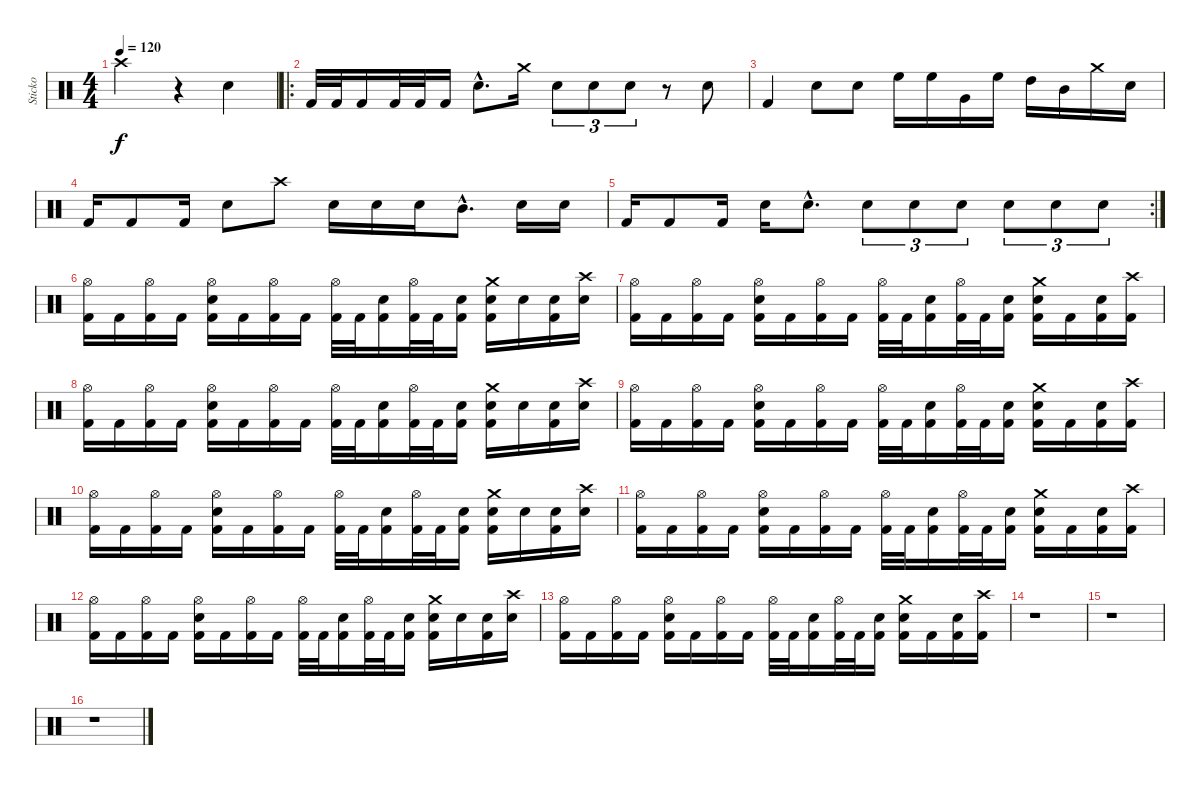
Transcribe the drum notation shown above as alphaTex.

\track ("Sticko" "Sticko") {instrument percussion}
\staff {score}
\articulation defaults
\ts (4 4)
\tempo 120
\clef neutral
\ks c "Crash high (hit)".2{dy f}
r.4 "Snare (hit) 2".4 |
\ro "Kick (hit) 2".32 "Kick (hit) 2".32 "Kick (hit) 2".16 "Kick (hit) 2".32 "Kick (hit) 2".32 "Kick (hit) 2".16 "Snare (hit) 2"{hac}.8{d} "Crash medium (hit)".16 "Snare (hit) 2".8{tu (3 2)} "Snare (hit) 2".8{tu (3 2)} "Snare (hit) 2".8{tu (3 2)}
r.8 "Snare (hit) 2".8 |
"Kick (hit) 2".4 "Snare (hit) 2".8 "Snare (hit) 2".8 "High Floor Tom (hit)".16 "High Floor Tom (hit)".16 "Very Low Tom (hit)".16 "High Floor Tom (hit)".16 "High Tom (hit)".16 "Mid Tom (hit)".16 "Crash medium (hit)".16 "Snare (hit) 2".16 |
"Kick (hit) 2".16 "Kick (hit) 2".8 "Kick (hit) 2".16 "Snare (hit) 2".8 "Crash high (hit)".8 "Snare (hit) 2".16 "Snare (hit) 2".16 "Snare (hit) 2".16 "Mid Tom (hit)"{hac}.8{d} "Snare (hit) 2".16 "Snare (hit) 2".16 |
\rc 2 "Kick (hit) 2".16 "Kick (hit) 2".8 "Kick (hit) 2".16 "Snare (hit) 2".16 "Snare (hit) 2"{hac}.8{d} "Snare (hit) 2".8{tu (3 2)} "Snare (hit) 2".8{tu (3 2)} "Snare (hit) 2".8{tu (3 2)} "Snare (hit) 2".8{tu (3 2)} "Snare (hit) 2".8{tu (3 2)} "Snare (hit) 2".8{tu (3 2)}
|
("Hi-Hat (open)" "Kick (hit) 2").16 "Kick (hit) 2".16 ("Hi-Hat (open)" "Kick (hit) 2").16 "Kick (hit) 2".16 ("Hi-Hat (open)" "Snare (hit) 2" "Kick (hit) 2").16 "Kick (hit) 2".16 ("Hi-Hat (open)" "Kick (hit) 2").16 "Kick (hit) 2".16 ("Hi-Hat (open)" "Kick (hit) 2").32 "Kick (hit) 2".32 ("Snare (hit) 2" "Kick (hit) 2").16 ("Hi-Hat (open)" "Kick (hit) 2").32 "Kick (hit) 2".32 ("Snare (hit) 2" "Kick (hit) 2").16 ("Crash medium (hit)" "Snare (hit) 2" "Kick (hit) 2").16 "Snare (hit) 2".16 ("Snare (hit) 2" "Kick (hit) 2").16 ("Crash high (hit)" "Snare (hit) 2").16 |
("Hi-Hat (open)" "Kick (hit) 2").16 "Kick (hit) 2".16 ("Hi-Hat (open)" "Kick (hit) 2").16 "Kick (hit) 2".16 ("Hi-Hat (open)" "Snare (hit) 2" "Kick (hit) 2").16 "Kick (hit) 2".16 ("Hi-Hat (open)" "Kick (hit) 2").16 "Kick (hit) 2".16 ("Hi-Hat (open)" "Kick (hit) 2").32 "Kick (hit) 2".32 ("Snare (hit) 2" "Kick (hit) 2").16 ("Hi-Hat (open)" "Kick (hit) 2").32 "Kick (hit) 2".32 ("Snare (hit) 2" "Kick (hit) 2").16 ("Crash medium (hit)" "Snare (hit) 2" "Kick (hit) 2").16 "Kick (hit) 2".16 ("Snare (hit) 2" "Kick (hit) 2").16 ("Crash high (hit)" "Kick (hit) 2").16 |
("Hi-Hat (open)" "Kick (hit) 2").16 "Kick (hit) 2".16 ("Hi-Hat (open)" "Kick (hit) 2").16 "Kick (hit) 2".16 ("Hi-Hat (open)" "Snare (hit) 2" "Kick (hit) 2").16 "Kick (hit) 2".16 ("Hi-Hat (open)" "Kick (hit) 2").16 "Kick (hit) 2".16 ("Hi-Hat (open)" "Kick (hit) 2").32 "Kick (hit) 2".32 ("Snare (hit) 2" "Kick (hit) 2").16 ("Hi-Hat (open)" "Kick (hit) 2").32 "Kick (hit) 2".32 ("Snare (hit) 2" "Kick (hit) 2").16 ("Crash medium (hit)" "Snare (hit) 2" "Kick (hit) 2").16 "Snare (hit) 2".16 ("Snare (hit) 2" "Kick (hit) 2").16 ("Crash high (hit)" "Snare (hit) 2").16 |
("Hi-Hat (open)" "Kick (hit) 2").16 "Kick (hit) 2".16 ("Hi-Hat (open)" "Kick (hit) 2").16 "Kick (hit) 2".16 ("Hi-Hat (open)" "Snare (hit) 2" "Kick (hit) 2").16 "Kick (hit) 2".16 ("Hi-Hat (open)" "Kick (hit) 2").16 "Kick (hit) 2".16 ("Hi-Hat (open)" "Kick (hit) 2").32 "Kick (hit) 2".32 ("Snare (hit) 2" "Kick (hit) 2").16 ("Hi-Hat (open)" "Kick (hit) 2").32 "Kick (hit) 2".32 ("Snare (hit) 2" "Kick (hit) 2").16 ("Crash medium (hit)" "Snare (hit) 2" "Kick (hit) 2").16 "Kick (hit) 2".16 ("Snare (hit) 2" "Kick (hit) 2").16 ("Crash high (hit)" "Kick (hit) 2").16 |
("Hi-Hat (open)" "Kick (hit) 2").16 "Kick (hit) 2".16 ("Hi-Hat (open)" "Kick (hit) 2").16 "Kick (hit) 2".16 ("Hi-Hat (open)" "Snare (hit) 2" "Kick (hit) 2").16 "Kick (hit) 2".16 ("Hi-Hat (open)" "Kick (hit) 2").16 "Kick (hit) 2".16 ("Hi-Hat (open)" "Kick (hit) 2").32 "Kick (hit) 2".32 ("Snare (hit) 2" "Kick (hit) 2").16 ("Hi-Hat (open)" "Kick (hit) 2").32 "Kick (hit) 2".32 ("Snare (hit) 2" "Kick (hit) 2").16 ("Crash medium (hit)" "Snare (hit) 2" "Kick (hit) 2").16 "Snare (hit) 2".16 ("Snare (hit) 2" "Kick (hit) 2").16 ("Crash high (hit)" "Snare (hit) 2").16 |
("Hi-Hat (open)" "Kick (hit) 2").16 "Kick (hit) 2".16 ("Hi-Hat (open)" "Kick (hit) 2").16 "Kick (hit) 2".16 ("Hi-Hat (open)" "Snare (hit) 2" "Kick (hit) 2").16 "Kick (hit) 2".16 ("Hi-Hat (open)" "Kick (hit) 2").16 "Kick (hit) 2".16 ("Hi-Hat (open)" "Kick (hit) 2").32 "Kick (hit) 2".32 ("Snare (hit) 2" "Kick (hit) 2").16 ("Hi-Hat (open)" "Kick (hit) 2").32 "Kick (hit) 2".32 ("Snare (hit) 2" "Kick (hit) 2").16 ("Crash medium (hit)" "Snare (hit) 2" "Kick (hit) 2").16 "Kick (hit) 2".16 ("Snare (hit) 2" "Kick (hit) 2").16 ("Crash high (hit)" "Kick (hit) 2").16 |
("Hi-Hat (open)" "Kick (hit) 2").16 "Kick (hit) 2".16 ("Hi-Hat (open)" "Kick (hit) 2").16 "Kick (hit) 2".16 ("Hi-Hat (open)" "Snare (hit) 2" "Kick (hit) 2").16 "Kick (hit) 2".16 ("Hi-Hat (open)" "Kick (hit) 2").16 "Kick (hit) 2".16 ("Hi-Hat (open)" "Kick (hit) 2").32 "Kick (hit) 2".32 ("Snare (hit) 2" "Kick (hit) 2").16 ("Hi-Hat (open)" "Kick (hit) 2").32 "Kick (hit) 2".32 ("Snare (hit) 2" "Kick (hit) 2").16 ("Crash medium (hit)" "Snare (hit) 2" "Kick (hit) 2").16 "Snare (hit) 2".16 ("Snare (hit) 2" "Kick (hit) 2").16 ("Crash high (hit)" "Snare (hit) 2").16 |
("Hi-Hat (open)" "Kick (hit) 2").16 "Kick (hit) 2".16 ("Hi-Hat (open)" "Kick (hit) 2").16 "Kick (hit) 2".16 ("Hi-Hat (open)" "Snare (hit) 2" "Kick (hit) 2").16 "Kick (hit) 2".16 ("Hi-Hat (open)" "Kick (hit) 2").16 "Kick (hit) 2".16 ("Hi-Hat (open)" "Kick (hit) 2").32 "Kick (hit) 2".32 ("Snare (hit) 2" "Kick (hit) 2").16 ("Hi-Hat (open)" "Kick (hit) 2").32 "Kick (hit) 2".32 ("Snare (hit) 2" "Kick (hit) 2").16 ("Crash medium (hit)" "Snare (hit) 2" "Kick (hit) 2").16 "Kick (hit) 2".16 ("Snare (hit) 2" "Kick (hit) 2").16 ("Crash high (hit)" "Kick (hit) 2").16 |
r.1 |
r.1 |
r.1
